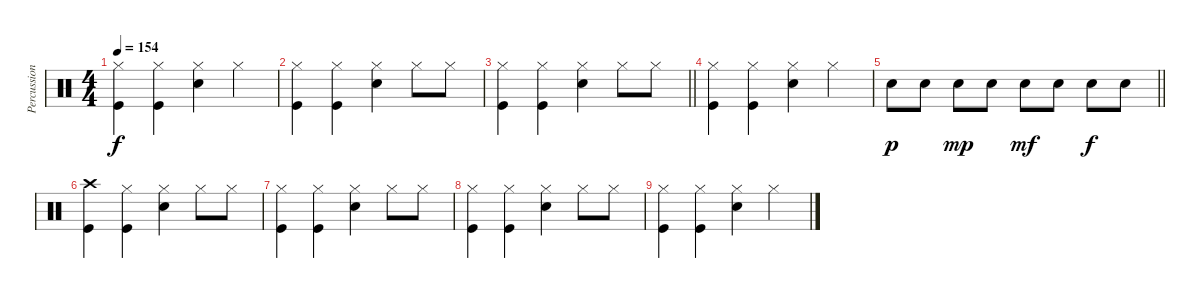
\track ("Percussion" "Percussion") {instrument percussion}
\staff {score}
\articulation defaults
\ts (4 4)
\tempo 154
\clef neutral
\ks c
("Hi-Hat (closed)" "Kick (hit)").4{dy f} ("Hi-Hat (closed)" "Kick (hit)").4 ("Hi-Hat (closed)" "Snare (hit) 2").4 "Hi-Hat (closed)".4 |
("Hi-Hat (closed)" "Kick (hit)").4 ("Hi-Hat (closed)" "Kick (hit)").4 ("Hi-Hat (closed)" "Snare (hit) 2").4 "Hi-Hat (closed)".8 "Hi-Hat (closed)".8 |
\barLineRight lightlight
("Hi-Hat (closed)" "Kick (hit)").4 ("Hi-Hat (closed)" "Kick (hit)").4 ("Hi-Hat (closed)" "Snare (hit) 2").4 "Hi-Hat (closed)".8 "Hi-Hat (closed)".8 |
("Hi-Hat (closed)" "Kick (hit)").4 ("Hi-Hat (closed)" "Kick (hit)").4 ("Hi-Hat (closed)" "Snare (hit) 2").4 "Hi-Hat (closed)".4 |
\barLineRight lightlight "Snare (hit) 2".8{dy p} "Snare (hit) 2".8 "Snare (hit) 2".8{dy mp} "Electric Snare (hit)".8 "Electric Snare (hit)".8{dy mf} "Electric Snare (hit)".8 "Snare (hit) 2".8{dy f} "Snare (hit) 2".8
|
("Crash high (hit)" "Kick (hit)").4{volume 0} ("Hi-Hat (closed)" "Kick (hit)").4 ("Hi-Hat (closed)" "Snare (hit) 2").4 "Hi-Hat (closed)".8 "Hi-Hat (closed)".8 |
("Hi-Hat (closed)" "Kick (hit)").4 ("Hi-Hat (closed)" "Kick (hit)").4 ("Hi-Hat (closed)" "Snare (hit) 2").4 "Hi-Hat (closed)".8 "Hi-Hat (closed)".8 |
("Hi-Hat (closed)" "Kick (hit)").4 ("Hi-Hat (closed)" "Kick (hit)").4 ("Hi-Hat (closed)" "Snare (hit) 2").4 "Hi-Hat (closed)".8 "Hi-Hat (closed)".8 |
("Hi-Hat (closed)" "Kick (hit)").4 ("Hi-Hat (closed)" "Kick (hit)").4 ("Hi-Hat (closed)" "Snare (hit) 2").4 "Hi-Hat (closed)".4
